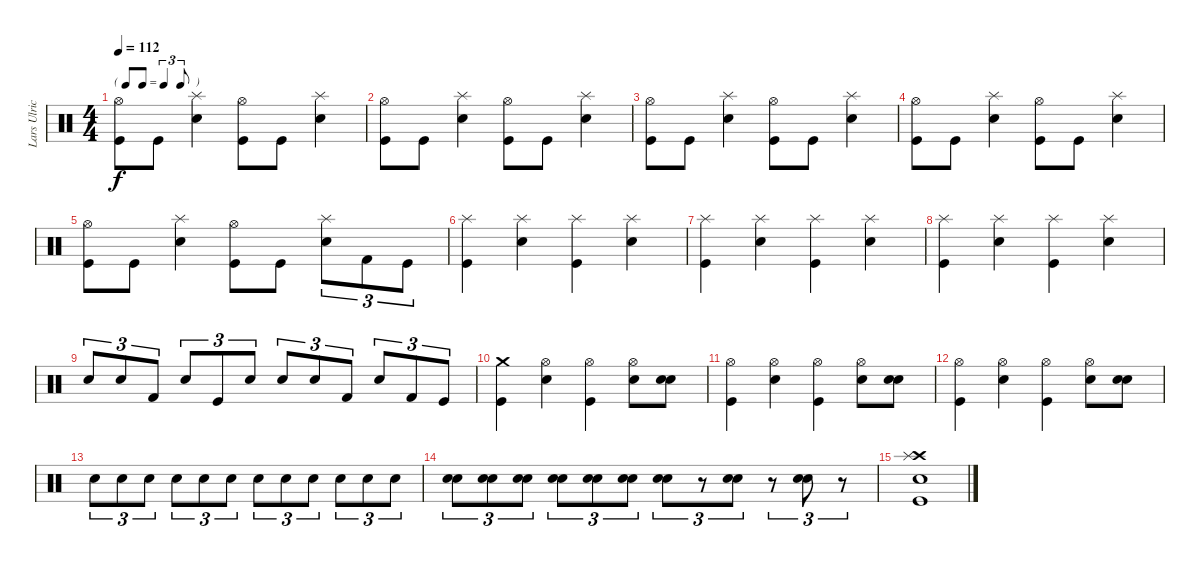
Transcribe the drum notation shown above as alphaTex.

\track ("Lars Ulrich (Drums)" "Lars Ulric") {instrument percussion}
\staff {score}
\articulation defaults
\ts (4 4)
\tf triplet8th
\tempo 112
\clef neutral
\ks c
("Hi-Hat (open)" "Kick (hit)").8{dy f} "Kick (hit)".8 ("Splash (hit)" "Electric Snare (hit)").4 ("Hi-Hat (open)" "Kick (hit)").8 "Kick (hit)".8 ("Splash (hit)" "Electric Snare (hit)").4 |
("Hi-Hat (open)" "Kick (hit)").8 "Kick (hit)".8 ("Splash (hit)" "Electric Snare (hit)").4 ("Hi-Hat (open)" "Kick (hit)").8 "Kick (hit)".8 ("Splash (hit)" "Electric Snare (hit)").4 |
("Hi-Hat (open)" "Kick (hit)").8 "Kick (hit)".8 ("Splash (hit)" "Electric Snare (hit)").4 ("Hi-Hat (open)" "Kick (hit)").8 "Kick (hit)".8 ("Splash (hit)" "Electric Snare (hit)").4 |
("Hi-Hat (open)" "Kick (hit)").8 "Kick (hit)".8 ("Splash (hit)" "Electric Snare (hit)").4 ("Hi-Hat (open)" "Kick (hit)").8 "Kick (hit)".8 ("Splash (hit)" "Electric Snare (hit)").4 |
("Hi-Hat (open)" "Kick (hit)").8 "Kick (hit)".8 ("Splash (hit)" "Electric Snare (hit)").4 ("Hi-Hat (open)" "Kick (hit)").8 "Kick (hit)".8 ("Splash (hit)" "Electric Snare (hit)").8{tu (3 2)} "Kick (hit) 2".8{tu (3 2)} "Kick (hit)".8{tu (3 2)} |
("Splash (hit)" "Kick (hit)").4 ("Splash (hit)" "Electric Snare (hit)").4 ("Splash (hit)" "Kick (hit)").4 ("Splash (hit)" "Electric Snare (hit)").4 |
("Splash (hit)" "Kick (hit)").4 ("Splash (hit)" "Electric Snare (hit)").4 ("Splash (hit)" "Kick (hit)").4 ("Splash (hit)" "Electric Snare (hit)").4 |
("Splash (hit)" "Kick (hit)").4 ("Splash (hit)" "Electric Snare (hit)").4 ("Splash (hit)" "Kick (hit)").4 ("Splash (hit)" "Electric Snare (hit)").4 |
"Electric Snare (hit)".8{tu (3 2)} "Snare (hit) 2".8{tu (3 2)} "Kick (hit) 2".8{tu (3 2)} "Electric Snare (hit)".8{tu (3 2)} "Kick (hit)".8{tu (3 2)} "Snare (hit) 2".8{tu (3 2)} "Electric Snare (hit)".8{tu (3 2)} "Electric Snare (hit)".8{tu (3 2)} "Kick (hit) 2".8{tu (3 2)} "Snare (hit) 2".8{tu (3 2)} "Kick (hit) 2".8{tu (3 2)} "Kick (hit)".8{tu (3 2)} |
("Crash medium (hit)" "Kick (hit)").4 ("Hi-Hat (open)" "Electric Snare (hit)").4 ("Hi-Hat (open)" "Kick (hit)").4 ("Hi-Hat (open)" "Electric Snare (hit)").8 ("Electric Snare (hit)" "Snare (hit) 2").8 |
("Hi-Hat (open)" "Kick (hit)").4 ("Hi-Hat (open)" "Electric Snare (hit)").4 ("Hi-Hat (open)" "Kick (hit)").4 ("Hi-Hat (open)" "Electric Snare (hit)").8 ("Electric Snare (hit)" "Snare (hit) 2").8 |
("Hi-Hat (open)" "Kick (hit)").4 ("Hi-Hat (open)" "Electric Snare (hit)").4 ("Hi-Hat (open)" "Kick (hit)").4 ("Hi-Hat (open)" "Electric Snare (hit)").8 ("Electric Snare (hit)" "Snare (hit) 2").8 |
"Snare (hit) 2".8{tu (3 2)} "Snare (hit) 2".8{tu (3 2)} "Snare (hit) 2".8{tu (3 2)} "Snare (hit) 2".8{tu (3 2)} "Snare (hit) 2".8{tu (3 2)} "Snare (hit) 2".8{tu (3 2)} "Snare (hit) 2".8{tu (3 2)} "Snare (hit) 2".8{tu (3 2)} "Snare (hit) 2".8{tu (3 2)} "Snare (hit) 2".8{tu (3 2)} "Snare (hit) 2".8{tu (3 2)} "Snare (hit) 2".8{tu (3 2)} |
("Electric Snare (hit)" "Snare (hit) 2").8{tu (3 2)} ("Electric Snare (hit)" "Snare (hit) 2").8{tu (3 2)} ("Electric Snare (hit)" "Snare (hit) 2").8{tu (3 2)} ("Electric Snare (hit)" "Snare (hit) 2").8{tu (3 2)} ("Electric Snare (hit)" "Snare (hit) 2").8{tu (3 2)} ("Electric Snare (hit)" "Snare (hit) 2").8{tu (3 2)} ("Snare (hit) 2" "Electric Snare (hit)").8{tu (3 2)} r.8{tu (3 2)} ("Snare (hit) 2" "Electric Snare (hit)").8{tu (3 2)} r.8{tu (3 2)} ("Snare (hit) 2" "Electric Snare (hit)").8{tu (3 2)} r.8{tu (3 2)} |
("Crash high (hit)" "Electric Snare (hit)" "Splash (hit)" "Kick (hit)").1
